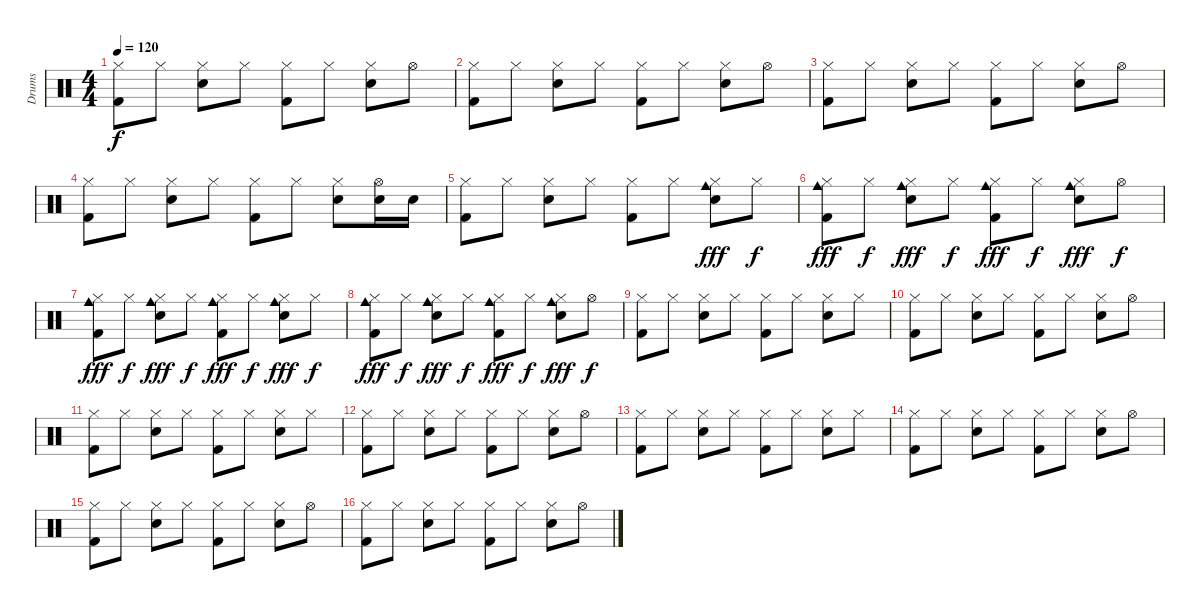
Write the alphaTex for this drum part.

\track ("Drums" "Drums") {instrument percussion}
\staff {score}
\articulation defaults
\ts (4 4)
\tempo 120
\clef neutral
\ks c
("Hi-Hat (closed)" "Kick (hit) 2").8{dy f} "Hi-Hat (closed)".8 ("Hi-Hat (closed)" "Electric Snare (hit)").8 "Hi-Hat (closed)".8 ("Hi-Hat (closed)" "Kick (hit) 2").8 "Hi-Hat (closed)".8 ("Hi-Hat (closed)" "Electric Snare (hit)").8 "Hi-Hat (open)".8 |
("Hi-Hat (closed)" "Kick (hit) 2").8 "Hi-Hat (closed)".8 ("Hi-Hat (closed)" "Electric Snare (hit)").8 "Hi-Hat (closed)".8 ("Hi-Hat (closed)" "Kick (hit) 2").8 "Hi-Hat (closed)".8 ("Hi-Hat (closed)" "Electric Snare (hit)").8 "Hi-Hat (open)".8 |
("Hi-Hat (closed)" "Kick (hit) 2").8 "Hi-Hat (closed)".8 ("Hi-Hat (closed)" "Electric Snare (hit)").8 "Hi-Hat (closed)".8 ("Hi-Hat (closed)" "Kick (hit) 2").8 "Hi-Hat (closed)".8 ("Hi-Hat (closed)" "Electric Snare (hit)").8 "Hi-Hat (open)".8 |
("Hi-Hat (closed)" "Kick (hit) 2").8 "Hi-Hat (closed)".8 ("Hi-Hat (closed)" "Electric Snare (hit)").8 "Hi-Hat (closed)".8 ("Hi-Hat (closed)" "Kick (hit) 2").8 "Hi-Hat (closed)".8 ("Hi-Hat (closed)" "Electric Snare (hit)").8 ("Electric Snare (hit)" "Hi-Hat (open)").16 "Electric Snare (hit)".16 |
("Hi-Hat (closed)" "Kick (hit) 2").8 "Hi-Hat (closed)".8 ("Hi-Hat (closed)" "Electric Snare (hit)").8 "Hi-Hat (closed)".8 ("Hi-Hat (closed)" "Kick (hit) 2").8 "Hi-Hat (closed)".8 ("Cowbell medium (hit)" "Hi-Hat (closed)" "Electric Snare (hit)").8{dy fff} "Hi-Hat (closed)".8{dy f} |
("Cowbell medium (hit)" "Hi-Hat (closed)" "Kick (hit) 2").8{dy fff} "Hi-Hat (closed)".8{dy f} ("Cowbell medium (hit)" "Hi-Hat (closed)" "Electric Snare (hit)").8{dy fff} "Hi-Hat (closed)".8{dy f} ("Cowbell medium (hit)" "Hi-Hat (closed)" "Kick (hit) 2").8{dy fff} "Hi-Hat (closed)".8{dy f} ("Cowbell medium (hit)" "Hi-Hat (closed)" "Electric Snare (hit)").8{dy fff} "Hi-Hat (open)".8{dy f} |
("Cowbell medium (hit)" "Hi-Hat (closed)" "Kick (hit) 2").8{dy fff} "Hi-Hat (closed)".8{dy f} ("Cowbell medium (hit)" "Hi-Hat (closed)" "Electric Snare (hit)").8{dy fff} "Hi-Hat (closed)".8{dy f} ("Cowbell medium (hit)" "Hi-Hat (closed)" "Kick (hit) 2").8{dy fff} "Hi-Hat (closed)".8{dy f} ("Cowbell medium (hit)" "Hi-Hat (closed)" "Electric Snare (hit)").8{dy fff} "Hi-Hat (closed)".8{dy f} |
("Cowbell medium (hit)" "Hi-Hat (closed)" "Kick (hit) 2").8{dy fff} "Hi-Hat (closed)".8{dy f} ("Cowbell medium (hit)" "Hi-Hat (closed)" "Electric Snare (hit)").8{dy fff} "Hi-Hat (closed)".8{dy f} ("Cowbell medium (hit)" "Hi-Hat (closed)" "Kick (hit) 2").8{dy fff} "Hi-Hat (closed)".8{dy f} ("Cowbell medium (hit)" "Hi-Hat (closed)" "Electric Snare (hit)").8{dy fff} "Hi-Hat (open)".8{dy f} |
("Hi-Hat (closed)" "Kick (hit) 2").8 "Hi-Hat (closed)".8 ("Hi-Hat (closed)" "Electric Snare (hit)").8 "Hi-Hat (closed)".8 ("Hi-Hat (closed)" "Kick (hit) 2").8 "Hi-Hat (closed)".8 ("Hi-Hat (closed)" "Electric Snare (hit)").8 "Hi-Hat (closed)".8 |
("Hi-Hat (closed)" "Kick (hit) 2").8 "Hi-Hat (closed)".8 ("Hi-Hat (closed)" "Electric Snare (hit)").8 "Hi-Hat (closed)".8 ("Hi-Hat (closed)" "Kick (hit) 2").8 "Hi-Hat (closed)".8 ("Hi-Hat (closed)" "Electric Snare (hit)").8 "Hi-Hat (open)".8 |
("Hi-Hat (closed)" "Kick (hit) 2").8 "Hi-Hat (closed)".8 ("Hi-Hat (closed)" "Electric Snare (hit)").8 "Hi-Hat (closed)".8 ("Hi-Hat (closed)" "Kick (hit) 2").8 "Hi-Hat (closed)".8 ("Hi-Hat (closed)" "Electric Snare (hit)").8 "Hi-Hat (closed)".8 |
("Hi-Hat (closed)" "Kick (hit) 2").8 "Hi-Hat (closed)".8 ("Hi-Hat (closed)" "Electric Snare (hit)").8 "Hi-Hat (closed)".8 ("Hi-Hat (closed)" "Kick (hit) 2").8 "Hi-Hat (closed)".8 ("Hi-Hat (closed)" "Electric Snare (hit)").8 "Hi-Hat (open)".8 |
("Hi-Hat (closed)" "Kick (hit) 2").8 "Hi-Hat (closed)".8 ("Hi-Hat (closed)" "Electric Snare (hit)").8 "Hi-Hat (closed)".8 ("Hi-Hat (closed)" "Kick (hit) 2").8 "Hi-Hat (closed)".8 ("Hi-Hat (closed)" "Electric Snare (hit)").8 "Hi-Hat (closed)".8 |
("Hi-Hat (closed)" "Kick (hit) 2").8 "Hi-Hat (closed)".8 ("Hi-Hat (closed)" "Electric Snare (hit)").8 "Hi-Hat (closed)".8 ("Hi-Hat (closed)" "Kick (hit) 2").8 "Hi-Hat (closed)".8 ("Hi-Hat (closed)" "Electric Snare (hit)").8 "Hi-Hat (open)".8 |
("Hi-Hat (closed)" "Kick (hit) 2").8 "Hi-Hat (closed)".8 ("Hi-Hat (closed)" "Electric Snare (hit)").8 "Hi-Hat (closed)".8 ("Hi-Hat (closed)" "Kick (hit) 2").8 "Hi-Hat (closed)".8 ("Hi-Hat (closed)" "Electric Snare (hit)").8 "Hi-Hat (open)".8 |
("Hi-Hat (closed)" "Kick (hit) 2").8 "Hi-Hat (closed)".8 ("Hi-Hat (closed)" "Electric Snare (hit)").8 "Hi-Hat (closed)".8 ("Hi-Hat (closed)" "Kick (hit) 2").8 "Hi-Hat (closed)".8 ("Hi-Hat (closed)" "Electric Snare (hit)").8 "Hi-Hat (open)".8
